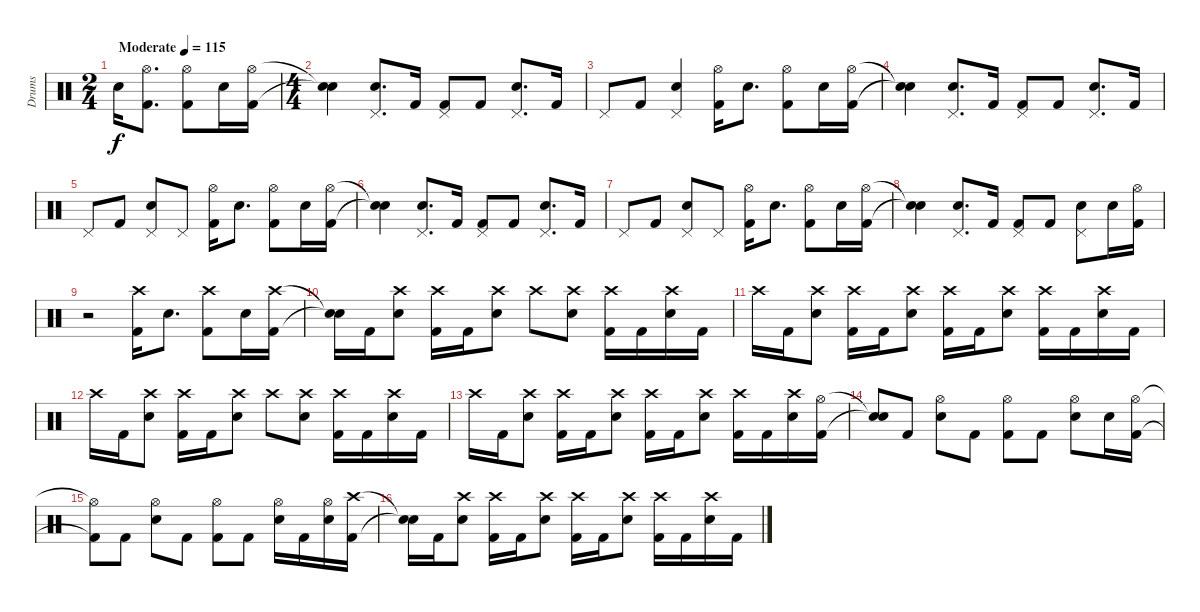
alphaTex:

\track ("Drums" "Drums") {instrument percussion}
\staff {score}
\articulation defaults
\ts (2 4)
\tempo (115 "Moderate")
\clef neutral
\ks c "Electric Snare (hit)".16{dy f volume 12}
("Hi-Hat (open)" "Kick (hit) 2").8{d} ("Hi-Hat (open)" "Kick (hit) 2").8 "Electric Snare (hit)".16 ("Hi-Hat (open)" "Kick (hit) 2").16 |
\ts (4 4)
("Snare (hit)"{t} "Snare (hit)"{t}).4 ("Pedal Hi-Hat (hit)" "Electric Snare (hit)").8{d} "Kick (hit) 2".16 ("Pedal Hi-Hat (hit)" "Kick (hit) 2").8 "Kick (hit) 2".8 ("Pedal Hi-Hat (hit)" "Electric Snare (hit)").8{d} "Kick (hit) 2".16 |
"Pedal Hi-Hat (hit)".8 "Kick (hit) 2".8 ("Pedal Hi-Hat (hit)" "Electric Snare (hit)").4 ("Hi-Hat (open)" "Kick (hit) 2").16 "Electric Snare (hit)".8{d} ("Hi-Hat (open)" "Kick (hit) 2").8 "Electric Snare (hit)".16 ("Hi-Hat (open)" "Kick (hit) 2").16 |
("Snare (hit)"{t} "Snare (hit)"{t}).4 ("Pedal Hi-Hat (hit)" "Electric Snare (hit)").8{d} "Kick (hit) 2".16 ("Pedal Hi-Hat (hit)" "Kick (hit) 2").8 "Kick (hit) 2".8 ("Pedal Hi-Hat (hit)" "Electric Snare (hit)").8{d} "Kick (hit) 2".16 |
"Pedal Hi-Hat (hit)".8 "Kick (hit) 2".8 ("Pedal Hi-Hat (hit)" "Electric Snare (hit)").8 "Pedal Hi-Hat (hit)".8 ("Hi-Hat (open)" "Kick (hit) 2").16 "Electric Snare (hit)".8{d} ("Hi-Hat (open)" "Kick (hit) 2").8 "Electric Snare (hit)".16 ("Hi-Hat (open)" "Kick (hit) 2").16 |
("Snare (hit)"{t} "Snare (hit)"{t}).4 ("Pedal Hi-Hat (hit)" "Electric Snare (hit)").8{d} "Kick (hit) 2".16 ("Pedal Hi-Hat (hit)" "Kick (hit) 2").8 "Kick (hit) 2".8 ("Pedal Hi-Hat (hit)" "Electric Snare (hit)").8{d} "Kick (hit) 2".16 |
"Pedal Hi-Hat (hit)".8 "Kick (hit) 2".8 ("Pedal Hi-Hat (hit)" "Electric Snare (hit)").8 "Pedal Hi-Hat (hit)".8 ("Hi-Hat (open)" "Kick (hit) 2").16 "Electric Snare (hit)".8{d} ("Hi-Hat (open)" "Kick (hit) 2").8 "Electric Snare (hit)".16 ("Hi-Hat (open)" "Kick (hit) 2").16 |
("Snare (hit)"{t} "Snare (hit)"{t}).4 ("Pedal Hi-Hat (hit)" "Electric Snare (hit)").8{d} "Kick (hit) 2".16 ("Pedal Hi-Hat (hit)" "Kick (hit) 2").8 "Kick (hit) 2".8 ("Pedal Hi-Hat (hit)" "Electric Snare (hit)").8 "Electric Snare (hit)".16 ("Hi-Hat (open)" "Kick (hit) 2").16 |
r.2{volume 0} ("Crash high (hit)" "Kick (hit) 2").16{volume 13} "Electric Snare (hit)".8{d} ("Crash high (hit)" "Kick (hit) 2").8 "Electric Snare (hit)".16 ("Crash high (hit)" "Kick (hit) 2").16 |
("Snare (hit)"{t} "Snare (hit)"{t}).16 "Kick (hit) 2".16 ("Crash high (hit)" "Electric Snare (hit)").8 ("Crash high (hit)" "Kick (hit) 2").16 "Kick (hit) 2".16 ("Crash high (hit)" "Electric Snare (hit)").8 "Crash high (hit)".8 ("Crash high (hit)" "Electric Snare (hit)").8 ("Crash high (hit)" "Kick (hit) 2").16 "Kick (hit) 2".16 ("Crash high (hit)" "Electric Snare (hit)").16 "Kick (hit) 2".16 |
"Crash high (hit)".16 "Kick (hit) 2".16 ("Crash high (hit)" "Electric Snare (hit)").8 ("Crash high (hit)" "Kick (hit) 2").16 "Kick (hit) 2".16 ("Crash high (hit)" "Electric Snare (hit)").8 ("Crash high (hit)" "Kick (hit) 2").16 "Kick (hit) 2".16 ("Crash high (hit)" "Electric Snare (hit)").8 ("Crash high (hit)" "Kick (hit) 2").16 "Kick (hit) 2".16 ("Crash high (hit)" "Electric Snare (hit)").16 "Kick (hit) 2".16 |
"Crash high (hit)".16 "Kick (hit) 2".16 ("Crash high (hit)" "Electric Snare (hit)").8 ("Crash high (hit)" "Kick (hit) 2").16 "Kick (hit) 2".16 ("Crash high (hit)" "Electric Snare (hit)").8 "Crash high (hit)".8 ("Crash high (hit)" "Electric Snare (hit)").8 ("Crash high (hit)" "Kick (hit) 2").16 "Kick (hit) 2".16 ("Crash high (hit)" "Electric Snare (hit)").16 "Kick (hit) 2".16 |
"Crash high (hit)".16 "Kick (hit) 2".16 ("Crash high (hit)" "Electric Snare (hit)").8 ("Crash high (hit)" "Kick (hit) 2").16 "Kick (hit) 2".16 ("Crash high (hit)" "Electric Snare (hit)").8 ("Crash high (hit)" "Kick (hit) 2").16 "Kick (hit) 2".16 ("Crash high (hit)" "Electric Snare (hit)").8 ("Crash high (hit)" "Kick (hit) 2").16 "Kick (hit) 2".16 ("Crash high (hit)" "Electric Snare (hit)").16 ("Hi-Hat (open)" "Kick (hit) 2").16 |
("Snare (hit)"{t} "Snare (hit)"{t}).8 "Kick (hit) 2".8 ("Hi-Hat (open)" "Electric Snare (hit)").8 "Kick (hit) 2".8 ("Hi-Hat (open)" "Kick (hit) 2").8 "Kick (hit) 2".8 ("Hi-Hat (open)" "Electric Snare (hit)").8 "Electric Snare (hit)".16 ("Hi-Hat (open)" "Kick (hit) 2").16 |
("Hi-Hat (open)"{t} "Kick (hit) 2"{t}).8 "Kick (hit) 2".8 ("Hi-Hat (open)" "Electric Snare (hit)").8 "Kick (hit) 2".8 ("Hi-Hat (open)" "Kick (hit) 2").8 "Kick (hit) 2".8 ("Hi-Hat (open)" "Electric Snare (hit)").16 "Kick (hit) 2".16 ("Hi-Hat (open)" "Electric Snare (hit)").16 ("Crash high (hit)" "Kick (hit) 2").16 |
("Snare (hit)"{t} "Snare (hit)"{t}).16 "Kick (hit) 2".16 ("Crash high (hit)" "Electric Snare (hit)").8 ("Crash high (hit)" "Kick (hit) 2").16 "Kick (hit) 2".16 ("Crash high (hit)" "Electric Snare (hit)").8 ("Crash high (hit)" "Kick (hit) 2").16 "Kick (hit) 2".16 ("Crash high (hit)" "Electric Snare (hit)").8 ("Crash high (hit)" "Kick (hit) 2").16 "Kick (hit) 2".16 ("Crash high (hit)" "Electric Snare (hit)").16 "Kick (hit) 2".16
